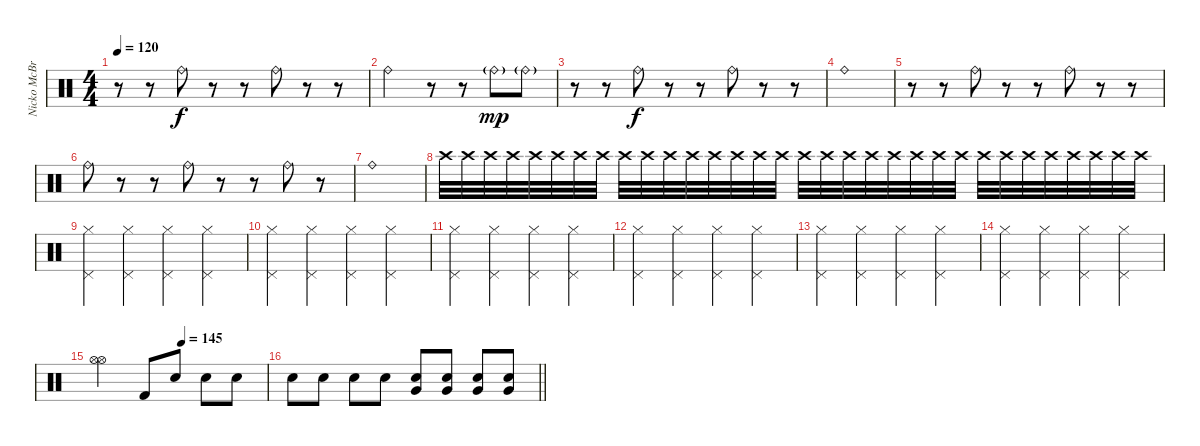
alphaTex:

\track ("Nicko McBrain" "Nicko McBr") {instrument percussion}
\staff {score}
\articulation defaults
\ts (4 4)
\tempo 120
\clef neutral
\ks c
r.8{dy f} r.8 "Ride (bell)".8{volume 10 balance 16} r.8 r.8 "Ride (bell)".8{balance 8} r.8 r.8 |
"Ride (bell)".2{balance 0} r.8 r.8 "Ride (bell)"{g}.8{dy mp} "Ride (bell)"{g}.8 |
r.8 r.8 "Ride (bell)".8{dy f balance 16} r.8 r.8 "Ride (bell)".8{balance 8} r.8 r.8 |
"Ride (bell)".1{balance 0} |
r.8 r.8 "Ride (bell)".8{balance 12} r.8 r.8 "Ride (bell)".8{balance 16} r.8 r.8 |
"Ride (bell)".8{balance 12} r.8 r.8 "Ride (bell)".8{balance 8} r.8 r.8 "Ride (bell)".8{balance 4} r.8 |
"Ride (bell)".1{volume 0 balance 0} |
"Crash high (hit)".32{volume 4 balance 8} "Crash high (hit)".32 "Crash high (hit)".32 "Crash high (hit)".32 "Crash high (hit)".32 "Crash high (hit)".32 "Crash high (hit)".32 "Crash high (hit)".32 "Crash high (hit)".32 "Crash high (hit)".32 "Crash high (hit)".32 "Crash high (hit)".32 "Crash high (hit)".32 "Crash high (hit)".32 "Crash high (hit)".32 "Crash high (hit)".32 "Crash high (hit)".32 "Crash high (hit)".32 "Crash high (hit)".32 "Crash high (hit)".32 "Crash high (hit)".32 "Crash high (hit)".32 "Crash high (hit)".32 "Crash high (hit)".32 "Crash high (hit)".32 "Crash high (hit)".32 "Crash high (hit)".32 "Crash high (hit)".32 "Crash high (hit)".32 "Crash high (hit)".32 "Crash high (hit)".32 "Crash high (hit)".32 |
("Pedal Hi-Hat (hit)" "Hi-Hat (closed)").4{volume 10 balance 8} ("Pedal Hi-Hat (hit)" "Hi-Hat (closed)").4 ("Pedal Hi-Hat (hit)" "Hi-Hat (closed)").4 ("Pedal Hi-Hat (hit)" "Hi-Hat (closed)").4 |
("Pedal Hi-Hat (hit)" "Hi-Hat (closed)").4 ("Pedal Hi-Hat (hit)" "Hi-Hat (closed)").4 ("Pedal Hi-Hat (hit)" "Hi-Hat (closed)").4 ("Pedal Hi-Hat (hit)" "Hi-Hat (closed)").4 |
("Pedal Hi-Hat (hit)" "Hi-Hat (closed)").4 ("Pedal Hi-Hat (hit)" "Hi-Hat (closed)").4 ("Pedal Hi-Hat (hit)" "Hi-Hat (closed)").4 ("Pedal Hi-Hat (hit)" "Hi-Hat (closed)").4 |
("Pedal Hi-Hat (hit)" "Hi-Hat (closed)").4 ("Pedal Hi-Hat (hit)" "Hi-Hat (closed)").4 ("Pedal Hi-Hat (hit)" "Hi-Hat (closed)").4 ("Pedal Hi-Hat (hit)" "Hi-Hat (closed)").4 |
("Pedal Hi-Hat (hit)" "Hi-Hat (closed)").4 ("Pedal Hi-Hat (hit)" "Hi-Hat (closed)").4 ("Pedal Hi-Hat (hit)" "Hi-Hat (closed)").4 ("Pedal Hi-Hat (hit)" "Hi-Hat (closed)").4 |
("Pedal Hi-Hat (hit)" "Hi-Hat (closed)").4 ("Pedal Hi-Hat (hit)" "Hi-Hat (closed)").4 ("Pedal Hi-Hat (hit)" "Hi-Hat (closed)").4 ("Pedal Hi-Hat (hit)" "Hi-Hat (closed)").4 |
\tempo (145 0.5)
("Hi-Hat (open)" "Hi-Hat (open)").2{volume 0} "Kick (hit) 2".8{volume 10} "Snare (hit) 2".8 "Snare (hit) 2".8 "Snare (hit) 2".8 |
\barLineRight lightlight "Snare (hit) 2".8 "Snare (hit) 2".8 "Snare (hit) 2".8 "Snare (hit) 2".8
("Snare (hit) 2" "Very Low Tom (hit)").8 ("Snare (hit) 2" "Very Low Tom (hit)").8 ("Snare (hit) 2" "Very Low Tom (hit)").8 ("Snare (hit) 2" "Very Low Tom (hit)").8
